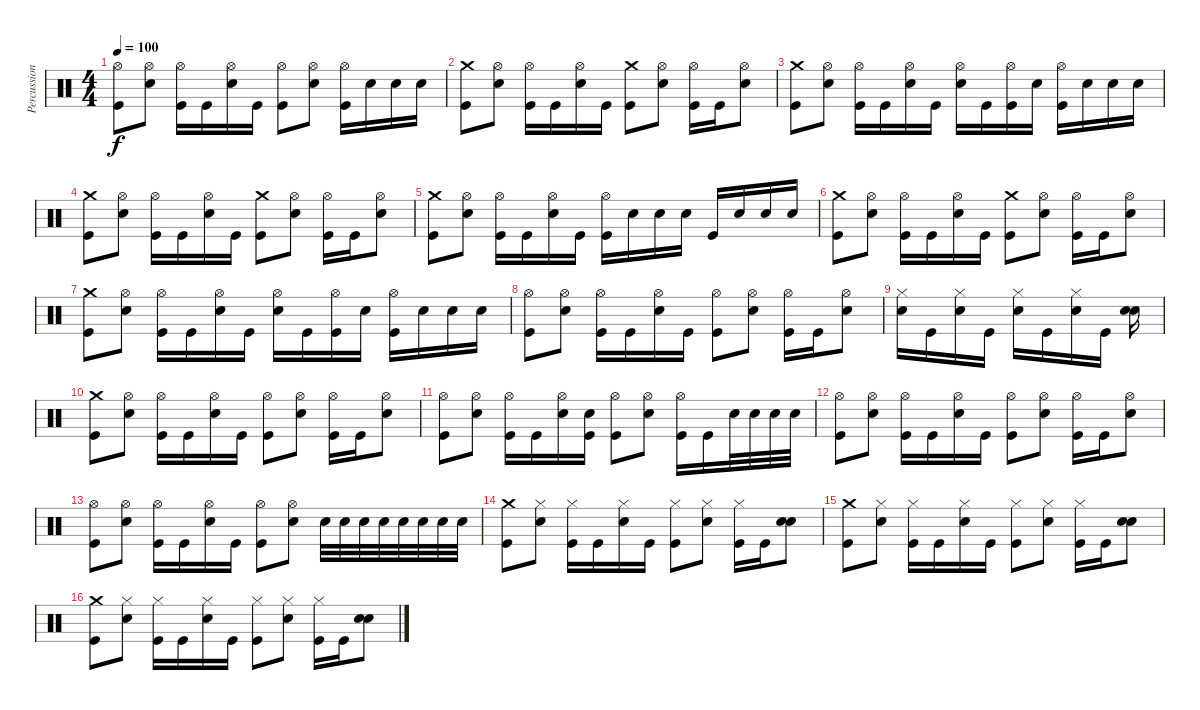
\track ("Percussion" "Percussion") {instrument percussion}
\staff {score}
\articulation defaults
\ts (4 4)
\tempo 100
\clef neutral
\ks c
("Hi-Hat (open)" "Kick (hit)").8{dy f} ("Hi-Hat (open)" "Snare (hit) 2").8 ("Hi-Hat (open)" "Kick (hit)").16 "Kick (hit)".16 ("Hi-Hat (open)" "Snare (hit) 2").16 "Kick (hit)".16 ("Hi-Hat (open)" "Kick (hit)").8 ("Hi-Hat (open)" "Snare (hit) 2").8 ("Hi-Hat (open)" "Kick (hit)").16 "Snare (hit) 2".16 "Snare (hit) 2".16 "Snare (hit) 2".16 |
("Crash medium (hit)" "Kick (hit)").8 ("Hi-Hat (open)" "Snare (hit) 2").8 ("Hi-Hat (open)" "Kick (hit)").16 "Kick (hit)".16 ("Hi-Hat (open)" "Snare (hit) 2").16 "Kick (hit)".16 ("Crash medium (hit)" "Kick (hit)").8 ("Hi-Hat (open)" "Snare (hit) 2").8 ("Hi-Hat (open)" "Kick (hit)").16 "Kick (hit)".16 ("Hi-Hat (open)" "Snare (hit) 2").8 |
("Crash medium (hit)" "Kick (hit)").8 ("Hi-Hat (open)" "Snare (hit) 2").8 ("Hi-Hat (open)" "Kick (hit)").16 "Kick (hit)".16 ("Hi-Hat (open)" "Snare (hit) 2").16 "Kick (hit)".16 ("Hi-Hat (open)" "Snare (hit) 2").16 "Kick (hit)".16 ("Hi-Hat (open)" "Kick (hit)").16 "Snare (hit) 2".16 ("Hi-Hat (open)" "Kick (hit)").16 "Snare (hit) 2".16 "Snare (hit) 2".16 "Snare (hit) 2".16 |
("Crash medium (hit)" "Kick (hit)").8 ("Hi-Hat (open)" "Snare (hit) 2").8 ("Hi-Hat (open)" "Kick (hit)").16 "Kick (hit)".16 ("Hi-Hat (open)" "Snare (hit) 2").16 "Kick (hit)".16 ("Crash medium (hit)" "Kick (hit)").8 ("Hi-Hat (open)" "Snare (hit) 2").8 ("Hi-Hat (open)" "Kick (hit)").16 "Kick (hit)".16 ("Hi-Hat (open)" "Snare (hit) 2").8 |
("Crash medium (hit)" "Kick (hit)").8 ("Hi-Hat (open)" "Snare (hit) 2").8 ("Hi-Hat (open)" "Kick (hit)").16 "Kick (hit)".16 ("Hi-Hat (open)" "Snare (hit) 2").16 "Kick (hit)".16 ("Hi-Hat (open)" "Kick (hit)").16 "Snare (hit) 2".16 "Snare (hit) 2".16 "Snare (hit) 2".16 "Kick (hit)".16 "Snare (hit) 2".16 "Snare (hit) 2".16 "Snare (hit) 2".16 |
("Crash medium (hit)" "Kick (hit)").8 ("Hi-Hat (open)" "Snare (hit) 2").8 ("Hi-Hat (open)" "Kick (hit)").16 "Kick (hit)".16 ("Hi-Hat (open)" "Snare (hit) 2").16 "Kick (hit)".16 ("Crash medium (hit)" "Kick (hit)").8 ("Hi-Hat (open)" "Snare (hit) 2").8 ("Hi-Hat (open)" "Kick (hit)").16 "Kick (hit)".16 ("Hi-Hat (open)" "Snare (hit) 2").8 |
("Crash medium (hit)" "Kick (hit)").8 ("Hi-Hat (open)" "Snare (hit) 2").8 ("Hi-Hat (open)" "Kick (hit)").16 "Kick (hit)".16 ("Hi-Hat (open)" "Snare (hit) 2").16 "Kick (hit)".16 ("Hi-Hat (open)" "Snare (hit) 2").16 "Kick (hit)".16 ("Hi-Hat (open)" "Kick (hit)").16 "Snare (hit) 2".16 ("Hi-Hat (open)" "Kick (hit)").16 "Snare (hit) 2".16 "Snare (hit) 2".16 "Snare (hit) 2".16 |
("Hi-Hat (open)" "Kick (hit)").8 ("Hi-Hat (open)" "Snare (hit) 2").8 ("Hi-Hat (open)" "Kick (hit)").16 "Kick (hit)".16 ("Hi-Hat (open)" "Snare (hit) 2").16 "Kick (hit)".16 ("Hi-Hat (open)" "Kick (hit)").8 ("Hi-Hat (open)" "Snare (hit) 2").8 ("Hi-Hat (open)" "Kick (hit)").16 "Kick (hit)".16 ("Hi-Hat (open)" "Snare (hit) 2").8 |
("Hi-Hat (closed)" "Snare (hit) 2").16 "Kick (hit)".16 ("Hi-Hat (closed)" "Snare (hit) 2").16 "Kick (hit)".16 ("Hi-Hat (closed)" "Snare (hit) 2").16 "Kick (hit)".16 ("Hi-Hat (closed)" "Snare (hit) 2").16 "Kick (hit)".16 ("Snare (hit) 2" "Snare (hit) 2").16 |
("Crash medium (hit)" "Kick (hit)").8 ("Hi-Hat (open)" "Snare (hit) 2").8 ("Hi-Hat (open)" "Kick (hit)").16 "Kick (hit)".16 ("Hi-Hat (open)" "Snare (hit) 2").16 "Kick (hit)".16 ("Hi-Hat (open)" "Kick (hit)").8 ("Hi-Hat (open)" "Snare (hit) 2").8 ("Hi-Hat (open)" "Kick (hit)").16 "Kick (hit)".16 ("Hi-Hat (open)" "Snare (hit) 2").8 |
("Hi-Hat (open)" "Kick (hit)").8 ("Hi-Hat (open)" "Snare (hit) 2").8 ("Hi-Hat (open)" "Kick (hit)").16 "Kick (hit)".16 ("Hi-Hat (open)" "Snare (hit) 2").16 ("Snare (hit)" "Kick (hit)").16 ("Hi-Hat (open)" "Kick (hit)").8 ("Hi-Hat (open)" "Snare (hit) 2").8 ("Hi-Hat (open)" "Kick (hit)").16 "Kick (hit)".16 "Snare (hit) 2".32 "Snare (hit) 2".32 "Snare (hit) 2".32 "Snare (hit) 2".32 |
("Hi-Hat (open)" "Kick (hit)").8 ("Hi-Hat (open)" "Snare (hit) 2").8 ("Hi-Hat (open)" "Kick (hit)").16 "Kick (hit)".16 ("Hi-Hat (open)" "Snare (hit) 2").16 "Kick (hit)".16 ("Hi-Hat (open)" "Kick (hit)").8 ("Hi-Hat (open)" "Snare (hit) 2").8 ("Hi-Hat (open)" "Kick (hit)").16 "Kick (hit)".16 ("Hi-Hat (open)" "Snare (hit) 2").8 |
("Hi-Hat (open)" "Kick (hit)").8 ("Hi-Hat (open)" "Snare (hit) 2").8 ("Hi-Hat (open)" "Kick (hit)").16 "Kick (hit)".16 ("Hi-Hat (open)" "Snare (hit) 2").16 "Kick (hit)".16 ("Hi-Hat (open)" "Kick (hit)").8 ("Hi-Hat (open)" "Snare (hit) 2").8 "Snare (hit) 2".32 "Snare (hit) 2".32 "Snare (hit) 2".32 "Snare (hit) 2".32 "Snare (hit) 2".32 "Snare (hit) 2".32 "Snare (hit) 2".32 "Snare (hit) 2".32 |
("Crash medium (hit)" "Kick (hit)").8 ("Hi-Hat (closed)" "Snare (hit) 2").8 ("Hi-Hat (closed)" "Kick (hit)").16 "Kick (hit)".16 ("Hi-Hat (closed)" "Snare (hit) 2").16 "Kick (hit)".16 ("Hi-Hat (closed)" "Kick (hit)").8 ("Hi-Hat (closed)" "Snare (hit) 2").8 ("Hi-Hat (closed)" "Kick (hit)").16 "Kick (hit)".16 ("Snare (hit) 2" "Snare (hit) 2").8 |
("Crash medium (hit)" "Kick (hit)").8 ("Hi-Hat (closed)" "Snare (hit) 2").8 ("Hi-Hat (closed)" "Kick (hit)").16 "Kick (hit)".16 ("Hi-Hat (closed)" "Snare (hit) 2").16 "Kick (hit)".16 ("Hi-Hat (closed)" "Kick (hit)").8 ("Hi-Hat (closed)" "Snare (hit) 2").8 ("Hi-Hat (closed)" "Kick (hit)").16 "Kick (hit)".16 ("Snare (hit) 2" "Snare (hit) 2").8 |
("Crash medium (hit)" "Kick (hit)").8 ("Hi-Hat (closed)" "Snare (hit) 2").8 ("Hi-Hat (closed)" "Kick (hit)").16 "Kick (hit)".16 ("Hi-Hat (closed)" "Snare (hit) 2").16 "Kick (hit)".16 ("Hi-Hat (closed)" "Kick (hit)").8 ("Hi-Hat (closed)" "Snare (hit) 2").8 ("Hi-Hat (closed)" "Kick (hit)").16 "Kick (hit)".16 ("Snare (hit) 2" "Snare (hit) 2").8
